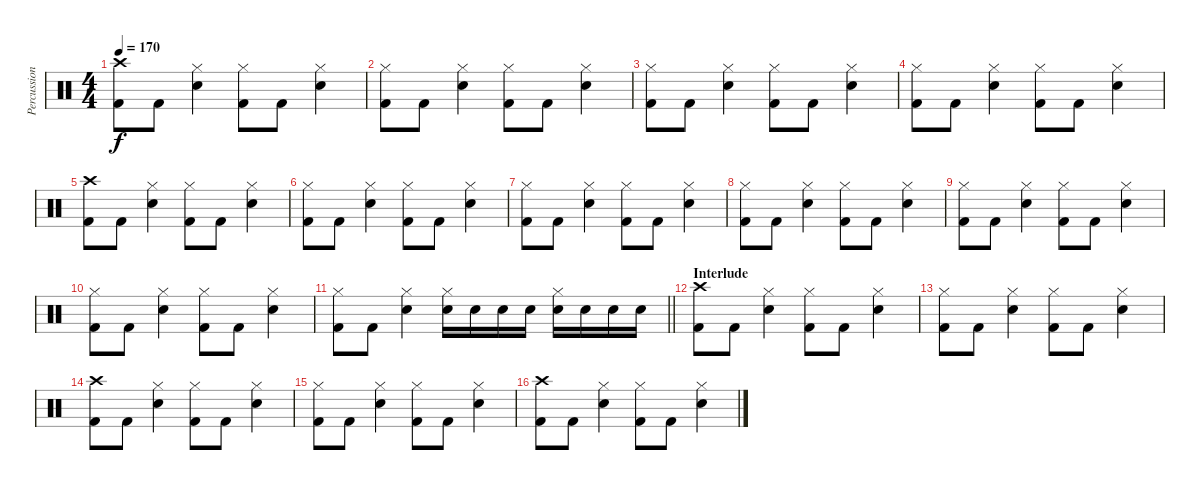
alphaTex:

\track ("Percussion" "Percussion") {instrument percussion}
\staff {score}
\articulation defaults
\ts (4 4)
\tempo 170
\clef neutral
\ks c
("Crash high (hit)" "Kick (hit) 2").8{dy f} "Kick (hit) 2".8 ("Hi-Hat (closed)" "Electric Snare (hit)").4 ("Hi-Hat (closed)" "Kick (hit) 2").8 "Kick (hit) 2".8 ("Hi-Hat (closed)" "Electric Snare (hit)").4 |
("Hi-Hat (closed)" "Kick (hit) 2").8 "Kick (hit) 2".8 ("Hi-Hat (closed)" "Electric Snare (hit)").4 ("Hi-Hat (closed)" "Kick (hit) 2").8 "Kick (hit) 2".8 ("Hi-Hat (closed)" "Electric Snare (hit)").4 |
("Hi-Hat (closed)" "Kick (hit) 2").8 "Kick (hit) 2".8 ("Hi-Hat (closed)" "Electric Snare (hit)").4 ("Hi-Hat (closed)" "Kick (hit) 2").8 "Kick (hit) 2".8 ("Hi-Hat (closed)" "Electric Snare (hit)").4 |
("Hi-Hat (closed)" "Kick (hit) 2").8 "Kick (hit) 2".8 ("Hi-Hat (closed)" "Electric Snare (hit)").4 ("Hi-Hat (closed)" "Kick (hit) 2").8 "Kick (hit) 2".8 ("Hi-Hat (closed)" "Electric Snare (hit)").4 |
("Crash high (hit)" "Kick (hit) 2").8 "Kick (hit) 2".8 ("Hi-Hat (closed)" "Electric Snare (hit)").4 ("Hi-Hat (closed)" "Kick (hit) 2").8 "Kick (hit) 2".8 ("Hi-Hat (closed)" "Electric Snare (hit)").4 |
("Hi-Hat (closed)" "Kick (hit) 2").8 "Kick (hit) 2".8 ("Hi-Hat (closed)" "Electric Snare (hit)").4 ("Hi-Hat (closed)" "Kick (hit) 2").8 "Kick (hit) 2".8 ("Hi-Hat (closed)" "Electric Snare (hit)").4 |
("Hi-Hat (closed)" "Kick (hit) 2").8 "Kick (hit) 2".8 ("Hi-Hat (closed)" "Electric Snare (hit)").4 ("Hi-Hat (closed)" "Kick (hit) 2").8 "Kick (hit) 2".8 ("Hi-Hat (closed)" "Electric Snare (hit)").4 |
("Hi-Hat (closed)" "Kick (hit) 2").8 "Kick (hit) 2".8 ("Hi-Hat (closed)" "Electric Snare (hit)").4 ("Hi-Hat (closed)" "Kick (hit) 2").8 "Kick (hit) 2".8 ("Hi-Hat (closed)" "Electric Snare (hit)").4 |
("Hi-Hat (closed)" "Kick (hit) 2").8 "Kick (hit) 2".8 ("Hi-Hat (closed)" "Electric Snare (hit)").4 ("Hi-Hat (closed)" "Kick (hit) 2").8 "Kick (hit) 2".8 ("Hi-Hat (closed)" "Electric Snare (hit)").4 |
("Hi-Hat (closed)" "Kick (hit) 2").8 "Kick (hit) 2".8 ("Hi-Hat (closed)" "Electric Snare (hit)").4 ("Hi-Hat (closed)" "Kick (hit) 2").8 "Kick (hit) 2".8 ("Hi-Hat (closed)" "Electric Snare (hit)").4 |
\barLineRight lightlight
("Hi-Hat (closed)" "Kick (hit) 2").8 "Kick (hit) 2".8 ("Hi-Hat (closed)" "Electric Snare (hit)").4 ("Hi-Hat (closed)" "Electric Snare (hit)").16 "Electric Snare (hit)".16 "Electric Snare (hit)".16 "Electric Snare (hit)".16 ("Hi-Hat (closed)" "Electric Snare (hit)").16 "Electric Snare (hit)".16 "Electric Snare (hit)".16 "Electric Snare (hit)".16 |
\section ("" "Interlude")
("Crash high (hit)" "Kick (hit) 2").8 "Kick (hit) 2".8 ("Hi-Hat (closed)" "Electric Snare (hit)").4 ("Hi-Hat (closed)" "Kick (hit) 2").8 "Kick (hit) 2".8 ("Hi-Hat (closed)" "Electric Snare (hit)").4 |
("Hi-Hat (closed)" "Kick (hit) 2").8 "Kick (hit) 2".8 ("Hi-Hat (closed)" "Electric Snare (hit)").4 ("Hi-Hat (closed)" "Kick (hit) 2").8 "Kick (hit) 2".8 ("Hi-Hat (closed)" "Electric Snare (hit)").4 |
("Crash high (hit)" "Kick (hit) 2").8 "Kick (hit) 2".8 ("Hi-Hat (closed)" "Electric Snare (hit)").4 ("Hi-Hat (closed)" "Kick (hit) 2").8 "Kick (hit) 2".8 ("Hi-Hat (closed)" "Electric Snare (hit)").4 |
("Hi-Hat (closed)" "Kick (hit) 2").8 "Kick (hit) 2".8 ("Hi-Hat (closed)" "Electric Snare (hit)").4 ("Hi-Hat (closed)" "Kick (hit) 2").8 "Kick (hit) 2".8 ("Hi-Hat (closed)" "Electric Snare (hit)").4 |
("Crash high (hit)" "Kick (hit) 2").8 "Kick (hit) 2".8 ("Hi-Hat (closed)" "Electric Snare (hit)").4 ("Hi-Hat (closed)" "Kick (hit) 2").8 "Kick (hit) 2".8 ("Hi-Hat (closed)" "Electric Snare (hit)").4
